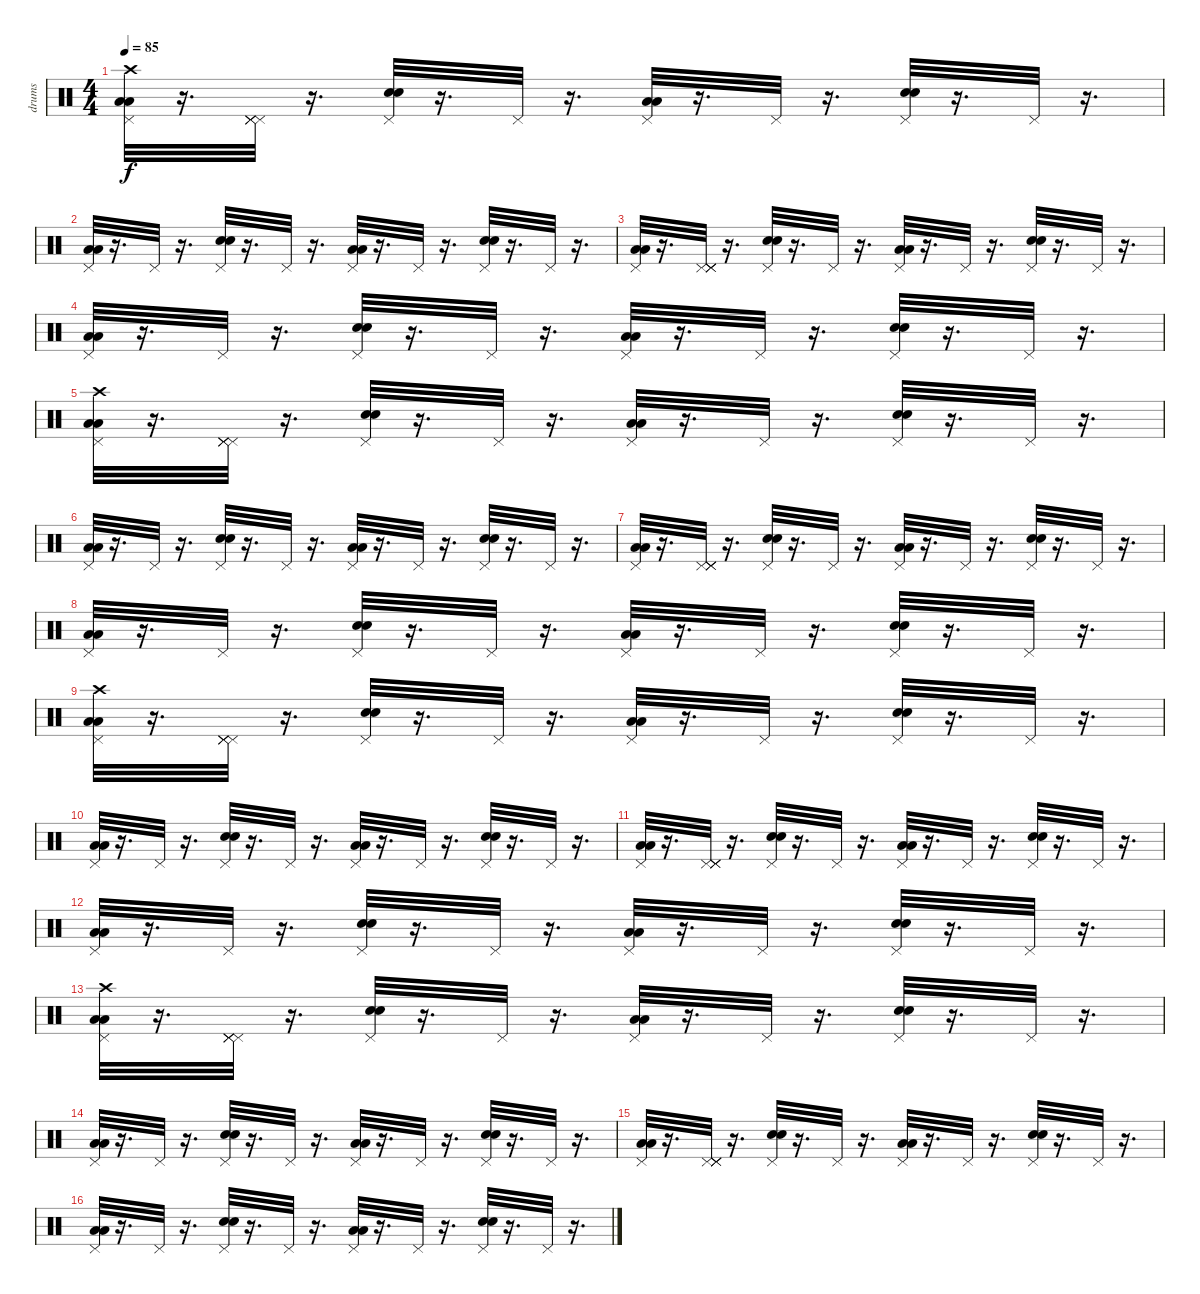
\track ("drums" "drums") {instrument percussion}
\staff {score}
\articulation defaults
\ts (4 4)
\tempo 85
\clef neutral
\ks c
("Crash high (hit)" "Pedal Hi-Hat (hit)" "Low Floor Tom (hit)" "Low Tom (hit)").32{dy f} r.16{d} ("Pedal Hi-Hat (hit)" "Pedal Hi-Hat (hit)" "Pedal Hi-Hat (hit)" "Pedal Hi-Hat (hit)").32 r.16{d} ("Pedal Hi-Hat (hit)" "Electric Snare (hit)" "Snare (hit) 2").32 r.16{d} "Pedal Hi-Hat (hit)".32 r.16{d} ("Pedal Hi-Hat (hit)" "Low Tom (hit)" "Low Floor Tom (hit)").32 r.16{d} "Pedal Hi-Hat (hit)".32 r.16{d} ("Pedal Hi-Hat (hit)" "Snare (hit) 2" "Electric Snare (hit)").32 r.16{d} "Pedal Hi-Hat (hit)".32 r.16{d} |
("Low Floor Tom (hit)" "Low Tom (hit)" "Pedal Hi-Hat (hit)").32 r.16{d} "Pedal Hi-Hat (hit)".32 r.16{d} ("Snare (hit) 2" "Electric Snare (hit)" "Pedal Hi-Hat (hit)").32 r.16{d} "Pedal Hi-Hat (hit)".32 r.16{d} ("Low Tom (hit)" "Low Floor Tom (hit)" "Pedal Hi-Hat (hit)").32 r.16{d} "Pedal Hi-Hat (hit)".32 r.16{d} ("Snare (hit) 2" "Electric Snare (hit)" "Pedal Hi-Hat (hit)").32 r.16{d} "Pedal Hi-Hat (hit)".32 r.16{d} |
("Pedal Hi-Hat (hit)" "Low Floor Tom (hit)" "Low Tom (hit)").32 r.16{d} ("Pedal Hi-Hat (hit)" "Pedal Hi-Hat (hit)" "Pedal Hi-Hat (hit)" "Pedal Hi-Hat (hit)").32 r.16{d} ("Pedal Hi-Hat (hit)" "Electric Snare (hit)" "Snare (hit) 2").32 r.16{d} "Pedal Hi-Hat (hit)".32 r.16{d} ("Pedal Hi-Hat (hit)" "Low Tom (hit)" "Low Floor Tom (hit)").32 r.16{d} "Pedal Hi-Hat (hit)".32 r.16{d} ("Pedal Hi-Hat (hit)" "Snare (hit) 2" "Electric Snare (hit)").32 r.16{d} "Pedal Hi-Hat (hit)".32 r.16{d} |
("Low Floor Tom (hit)" "Low Tom (hit)" "Pedal Hi-Hat (hit)").32 r.16{d} "Pedal Hi-Hat (hit)".32 r.16{d} ("Snare (hit) 2" "Electric Snare (hit)" "Pedal Hi-Hat (hit)").32 r.16{d} "Pedal Hi-Hat (hit)".32 r.16{d} ("Low Tom (hit)" "Low Floor Tom (hit)" "Pedal Hi-Hat (hit)").32 r.16{d} "Pedal Hi-Hat (hit)".32 r.16{d} ("Snare (hit) 2" "Electric Snare (hit)" "Pedal Hi-Hat (hit)").32 r.16{d} "Pedal Hi-Hat (hit)".32 r.16{d} |
("Crash high (hit)" "Pedal Hi-Hat (hit)" "Low Floor Tom (hit)" "Low Tom (hit)").32 r.16{d} ("Pedal Hi-Hat (hit)" "Pedal Hi-Hat (hit)" "Pedal Hi-Hat (hit)" "Pedal Hi-Hat (hit)").32 r.16{d} ("Pedal Hi-Hat (hit)" "Electric Snare (hit)" "Snare (hit) 2").32 r.16{d} "Pedal Hi-Hat (hit)".32 r.16{d} ("Pedal Hi-Hat (hit)" "Low Tom (hit)" "Low Floor Tom (hit)").32 r.16{d} "Pedal Hi-Hat (hit)".32 r.16{d} ("Pedal Hi-Hat (hit)" "Snare (hit) 2" "Electric Snare (hit)").32 r.16{d} "Pedal Hi-Hat (hit)".32 r.16{d} |
("Low Floor Tom (hit)" "Low Tom (hit)" "Pedal Hi-Hat (hit)").32 r.16{d} "Pedal Hi-Hat (hit)".32 r.16{d} ("Snare (hit) 2" "Electric Snare (hit)" "Pedal Hi-Hat (hit)").32 r.16{d} "Pedal Hi-Hat (hit)".32 r.16{d} ("Low Tom (hit)" "Low Floor Tom (hit)" "Pedal Hi-Hat (hit)").32 r.16{d} "Pedal Hi-Hat (hit)".32 r.16{d} ("Snare (hit) 2" "Electric Snare (hit)" "Pedal Hi-Hat (hit)").32 r.16{d} "Pedal Hi-Hat (hit)".32 r.16{d} |
("Pedal Hi-Hat (hit)" "Low Floor Tom (hit)" "Low Tom (hit)").32 r.16{d} ("Pedal Hi-Hat (hit)" "Pedal Hi-Hat (hit)" "Pedal Hi-Hat (hit)" "Pedal Hi-Hat (hit)").32 r.16{d} ("Pedal Hi-Hat (hit)" "Electric Snare (hit)" "Snare (hit) 2").32 r.16{d} "Pedal Hi-Hat (hit)".32 r.16{d} ("Pedal Hi-Hat (hit)" "Low Tom (hit)" "Low Floor Tom (hit)").32 r.16{d} "Pedal Hi-Hat (hit)".32 r.16{d} ("Pedal Hi-Hat (hit)" "Snare (hit) 2" "Electric Snare (hit)").32 r.16{d} "Pedal Hi-Hat (hit)".32 r.16{d} |
("Low Floor Tom (hit)" "Low Tom (hit)" "Pedal Hi-Hat (hit)").32 r.16{d} "Pedal Hi-Hat (hit)".32 r.16{d} ("Snare (hit) 2" "Electric Snare (hit)" "Pedal Hi-Hat (hit)").32 r.16{d} "Pedal Hi-Hat (hit)".32 r.16{d} ("Low Tom (hit)" "Low Floor Tom (hit)" "Pedal Hi-Hat (hit)").32 r.16{d} "Pedal Hi-Hat (hit)".32 r.16{d} ("Snare (hit) 2" "Electric Snare (hit)" "Pedal Hi-Hat (hit)").32 r.16{d} "Pedal Hi-Hat (hit)".32 r.16{d} |
("Crash high (hit)" "Pedal Hi-Hat (hit)" "Low Floor Tom (hit)" "Low Tom (hit)").32 r.16{d} ("Pedal Hi-Hat (hit)" "Pedal Hi-Hat (hit)" "Pedal Hi-Hat (hit)" "Pedal Hi-Hat (hit)").32 r.16{d} ("Pedal Hi-Hat (hit)" "Electric Snare (hit)" "Snare (hit) 2").32 r.16{d} "Pedal Hi-Hat (hit)".32 r.16{d} ("Pedal Hi-Hat (hit)" "Low Tom (hit)" "Low Floor Tom (hit)").32 r.16{d} "Pedal Hi-Hat (hit)".32 r.16{d} ("Pedal Hi-Hat (hit)" "Snare (hit) 2" "Electric Snare (hit)").32 r.16{d} "Pedal Hi-Hat (hit)".32 r.16{d} |
("Low Floor Tom (hit)" "Low Tom (hit)" "Pedal Hi-Hat (hit)").32 r.16{d} "Pedal Hi-Hat (hit)".32 r.16{d} ("Snare (hit) 2" "Electric Snare (hit)" "Pedal Hi-Hat (hit)").32 r.16{d} "Pedal Hi-Hat (hit)".32 r.16{d} ("Low Tom (hit)" "Low Floor Tom (hit)" "Pedal Hi-Hat (hit)").32 r.16{d} "Pedal Hi-Hat (hit)".32 r.16{d} ("Snare (hit) 2" "Electric Snare (hit)" "Pedal Hi-Hat (hit)").32 r.16{d} "Pedal Hi-Hat (hit)".32 r.16{d} |
("Pedal Hi-Hat (hit)" "Low Floor Tom (hit)" "Low Tom (hit)").32 r.16{d} ("Pedal Hi-Hat (hit)" "Pedal Hi-Hat (hit)" "Pedal Hi-Hat (hit)" "Pedal Hi-Hat (hit)").32 r.16{d} ("Pedal Hi-Hat (hit)" "Electric Snare (hit)" "Snare (hit) 2").32 r.16{d} "Pedal Hi-Hat (hit)".32 r.16{d} ("Pedal Hi-Hat (hit)" "Low Tom (hit)" "Low Floor Tom (hit)").32 r.16{d} "Pedal Hi-Hat (hit)".32 r.16{d} ("Pedal Hi-Hat (hit)" "Snare (hit) 2" "Electric Snare (hit)").32 r.16{d} "Pedal Hi-Hat (hit)".32 r.16{d} |
("Low Floor Tom (hit)" "Low Tom (hit)" "Pedal Hi-Hat (hit)").32 r.16{d} "Pedal Hi-Hat (hit)".32 r.16{d} ("Snare (hit) 2" "Electric Snare (hit)" "Pedal Hi-Hat (hit)").32 r.16{d} "Pedal Hi-Hat (hit)".32 r.16{d} ("Low Tom (hit)" "Low Floor Tom (hit)" "Pedal Hi-Hat (hit)").32 r.16{d} "Pedal Hi-Hat (hit)".32 r.16{d} ("Snare (hit) 2" "Electric Snare (hit)" "Pedal Hi-Hat (hit)").32 r.16{d} "Pedal Hi-Hat (hit)".32 r.16{d} |
("Crash high (hit)" "Pedal Hi-Hat (hit)" "Low Floor Tom (hit)" "Low Tom (hit)").32 r.16{d} ("Pedal Hi-Hat (hit)" "Pedal Hi-Hat (hit)" "Pedal Hi-Hat (hit)" "Pedal Hi-Hat (hit)").32 r.16{d} ("Pedal Hi-Hat (hit)" "Electric Snare (hit)" "Snare (hit) 2").32 r.16{d} "Pedal Hi-Hat (hit)".32 r.16{d} ("Pedal Hi-Hat (hit)" "Low Tom (hit)" "Low Floor Tom (hit)").32 r.16{d} "Pedal Hi-Hat (hit)".32 r.16{d} ("Pedal Hi-Hat (hit)" "Snare (hit) 2" "Electric Snare (hit)").32 r.16{d} "Pedal Hi-Hat (hit)".32 r.16{d} |
("Low Floor Tom (hit)" "Low Tom (hit)" "Pedal Hi-Hat (hit)").32 r.16{d} "Pedal Hi-Hat (hit)".32 r.16{d} ("Snare (hit) 2" "Electric Snare (hit)" "Pedal Hi-Hat (hit)").32 r.16{d} "Pedal Hi-Hat (hit)".32 r.16{d} ("Low Tom (hit)" "Low Floor Tom (hit)" "Pedal Hi-Hat (hit)").32 r.16{d} "Pedal Hi-Hat (hit)".32 r.16{d} ("Snare (hit) 2" "Electric Snare (hit)" "Pedal Hi-Hat (hit)").32 r.16{d} "Pedal Hi-Hat (hit)".32 r.16{d} |
("Pedal Hi-Hat (hit)" "Low Floor Tom (hit)" "Low Tom (hit)").32 r.16{d} ("Pedal Hi-Hat (hit)" "Pedal Hi-Hat (hit)" "Pedal Hi-Hat (hit)" "Pedal Hi-Hat (hit)").32 r.16{d} ("Pedal Hi-Hat (hit)" "Electric Snare (hit)" "Snare (hit) 2").32 r.16{d} "Pedal Hi-Hat (hit)".32 r.16{d} ("Pedal Hi-Hat (hit)" "Low Tom (hit)" "Low Floor Tom (hit)").32 r.16{d} "Pedal Hi-Hat (hit)".32 r.16{d} ("Pedal Hi-Hat (hit)" "Snare (hit) 2" "Electric Snare (hit)").32 r.16{d} "Pedal Hi-Hat (hit)".32 r.16{d} |
("Low Floor Tom (hit)" "Low Tom (hit)" "Pedal Hi-Hat (hit)").32 r.16{d} "Pedal Hi-Hat (hit)".32 r.16{d} ("Snare (hit) 2" "Electric Snare (hit)" "Pedal Hi-Hat (hit)").32 r.16{d} "Pedal Hi-Hat (hit)".32 r.16{d} ("Low Tom (hit)" "Low Floor Tom (hit)" "Pedal Hi-Hat (hit)").32 r.16{d} "Pedal Hi-Hat (hit)".32 r.16{d} ("Snare (hit) 2" "Electric Snare (hit)" "Pedal Hi-Hat (hit)").32 r.16{d} "Pedal Hi-Hat (hit)".32 r.16{d}
